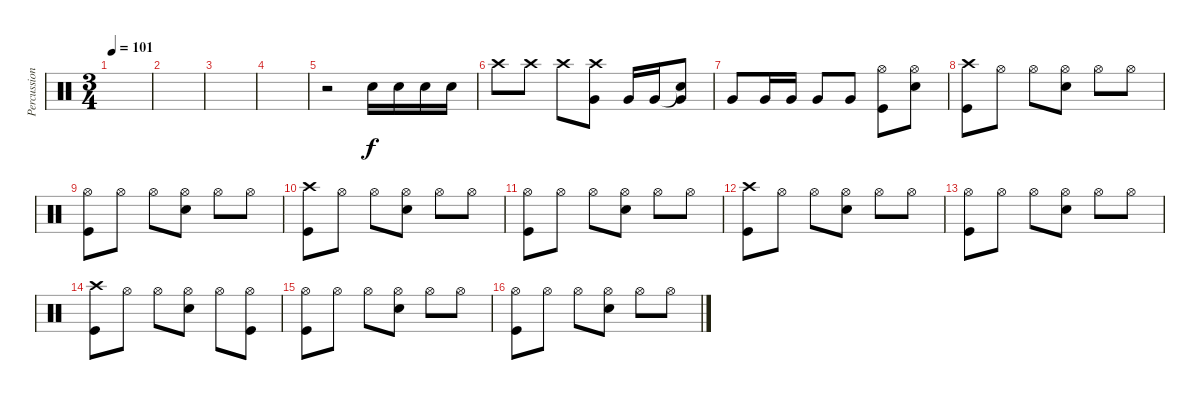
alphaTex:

\track ("Percussion" "Percussion") {instrument percussion}
\staff {score}
\articulation defaults
\ts (3 4)
\tempo 101
\clef neutral
\ks c
|
|
|
|
r.2 "Snare (hit) 2".16 "Snare (hit) 2".16 "Snare (hit) 2".16 "Snare (hit) 2".16 |
"Crash high (hit)".8 "Crash high (hit)".8 "Crash high (hit)".8 ("Crash high (hit)" "Very Low Tom (hit)").8 "Very Low Tom (hit)".16 "Very Low Tom (hit)".16 ("Snare (hit)"{t} "Very Low Tom (hit)").8 |
"Very Low Tom (hit)".8 "Very Low Tom (hit)".16 "Very Low Tom (hit)".16 "Very Low Tom (hit)".8 "Very Low Tom (hit)".8 ("Hi-Hat (open)" "Kick (hit)").8 ("Hi-Hat (open)" "Snare (hit) 2").8 |
("Crash high (hit)" "Kick (hit)").8 "Hi-Hat (open)".8 "Hi-Hat (open)".8 ("Hi-Hat (open)" "Snare (hit) 2").8 "Hi-Hat (open)".8 "Hi-Hat (open)".8 |
("Hi-Hat (open)" "Kick (hit)").8 "Hi-Hat (open)".8 "Hi-Hat (open)".8 ("Hi-Hat (open)" "Snare (hit) 2").8 "Hi-Hat (open)".8 "Hi-Hat (open)".8 |
("Crash high (hit)" "Kick (hit)").8 "Hi-Hat (open)".8 "Hi-Hat (open)".8 ("Hi-Hat (open)" "Snare (hit) 2").8 "Hi-Hat (open)".8 "Hi-Hat (open)".8 |
("Hi-Hat (open)" "Kick (hit)").8 "Hi-Hat (open)".8 "Hi-Hat (open)".8 ("Hi-Hat (open)" "Snare (hit) 2").8 "Hi-Hat (open)".8 "Hi-Hat (open)".8 |
("Crash high (hit)" "Kick (hit)").8 "Hi-Hat (open)".8 "Hi-Hat (open)".8 ("Hi-Hat (open)" "Snare (hit) 2").8 "Hi-Hat (open)".8 "Hi-Hat (open)".8 |
("Hi-Hat (open)" "Kick (hit)").8 "Hi-Hat (open)".8 "Hi-Hat (open)".8 ("Hi-Hat (open)" "Snare (hit) 2").8 "Hi-Hat (open)".8 "Hi-Hat (open)".8 |
("Crash high (hit)" "Kick (hit)").8 "Hi-Hat (open)".8 "Hi-Hat (open)".8 ("Hi-Hat (open)" "Snare (hit) 2").8 "Hi-Hat (open)".8 ("Hi-Hat (open)" "Kick (hit)").8 |
("Hi-Hat (open)" "Kick (hit)").8 "Hi-Hat (open)".8 "Hi-Hat (open)".8 ("Hi-Hat (open)" "Snare (hit) 2").8 "Hi-Hat (open)".8 "Hi-Hat (open)".8 |
("Hi-Hat (open)" "Kick (hit)").8 "Hi-Hat (open)".8 "Hi-Hat (open)".8 ("Hi-Hat (open)" "Snare (hit) 2").8 "Hi-Hat (open)".8 "Hi-Hat (open)".8
